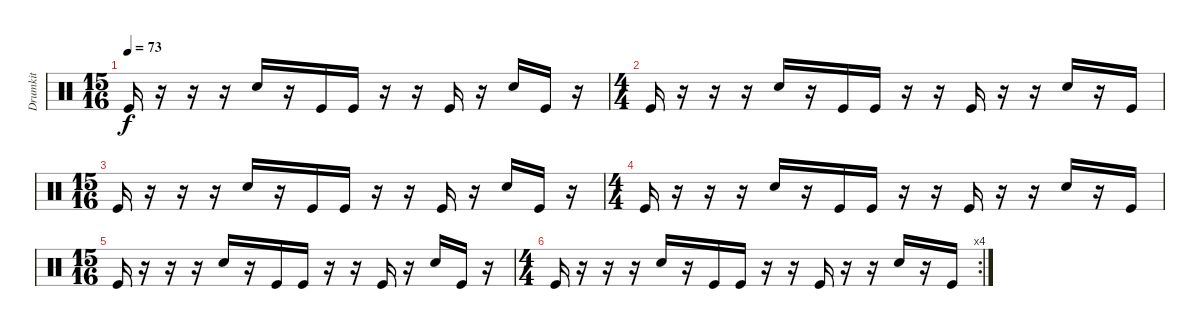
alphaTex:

\track ("Drumkit" "Drumkit") {instrument percussion}
\staff {score}
\articulation defaults
\ts (15 16)
\tempo 73
\clef neutral
\ks c "Kick (hit)".16{dy f}
r.16 r.16 r.16 "Snare (hit) 2".16 r.16 "Kick (hit)".16 "Kick (hit)".16 r.16 r.16 "Kick (hit)".16 r.16 "Snare (hit) 2".16 "Kick (hit)".16 r.16 |
\ts (4 4)
"Kick (hit)".16 r.16 r.16 r.16 "Snare (hit) 2".16 r.16 "Kick (hit)".16 "Kick (hit)".16 r.16 r.16 "Kick (hit)".16 r.16 r.16 "Snare (hit) 2".16 r.16 "Kick (hit)".16 |
\ts (15 16)
"Kick (hit)".16 r.16 r.16 r.16 "Snare (hit) 2".16 r.16 "Kick (hit)".16 "Kick (hit)".16 r.16 r.16 "Kick (hit)".16 r.16 "Snare (hit) 2".16 "Kick (hit)".16 r.16 |
\ts (4 4)
"Kick (hit)".16 r.16 r.16 r.16 "Snare (hit) 2".16 r.16 "Kick (hit)".16 "Kick (hit)".16 r.16 r.16 "Kick (hit)".16 r.16 r.16 "Snare (hit) 2".16 r.16 "Kick (hit)".16 |
\ts (15 16)
"Kick (hit)".16 r.16 r.16 r.16 "Snare (hit) 2".16 r.16 "Kick (hit)".16 "Kick (hit)".16 r.16 r.16 "Kick (hit)".16 r.16 "Snare (hit) 2".16 "Kick (hit)".16 r.16 |
\rc 4
\ts (4 4)
"Kick (hit)".16 r.16 r.16 r.16 "Snare (hit) 2".16 r.16 "Kick (hit)".16 "Kick (hit)".16 r.16 r.16 "Kick (hit)".16 r.16 r.16 "Snare (hit) 2".16 r.16 "Kick (hit)".16
